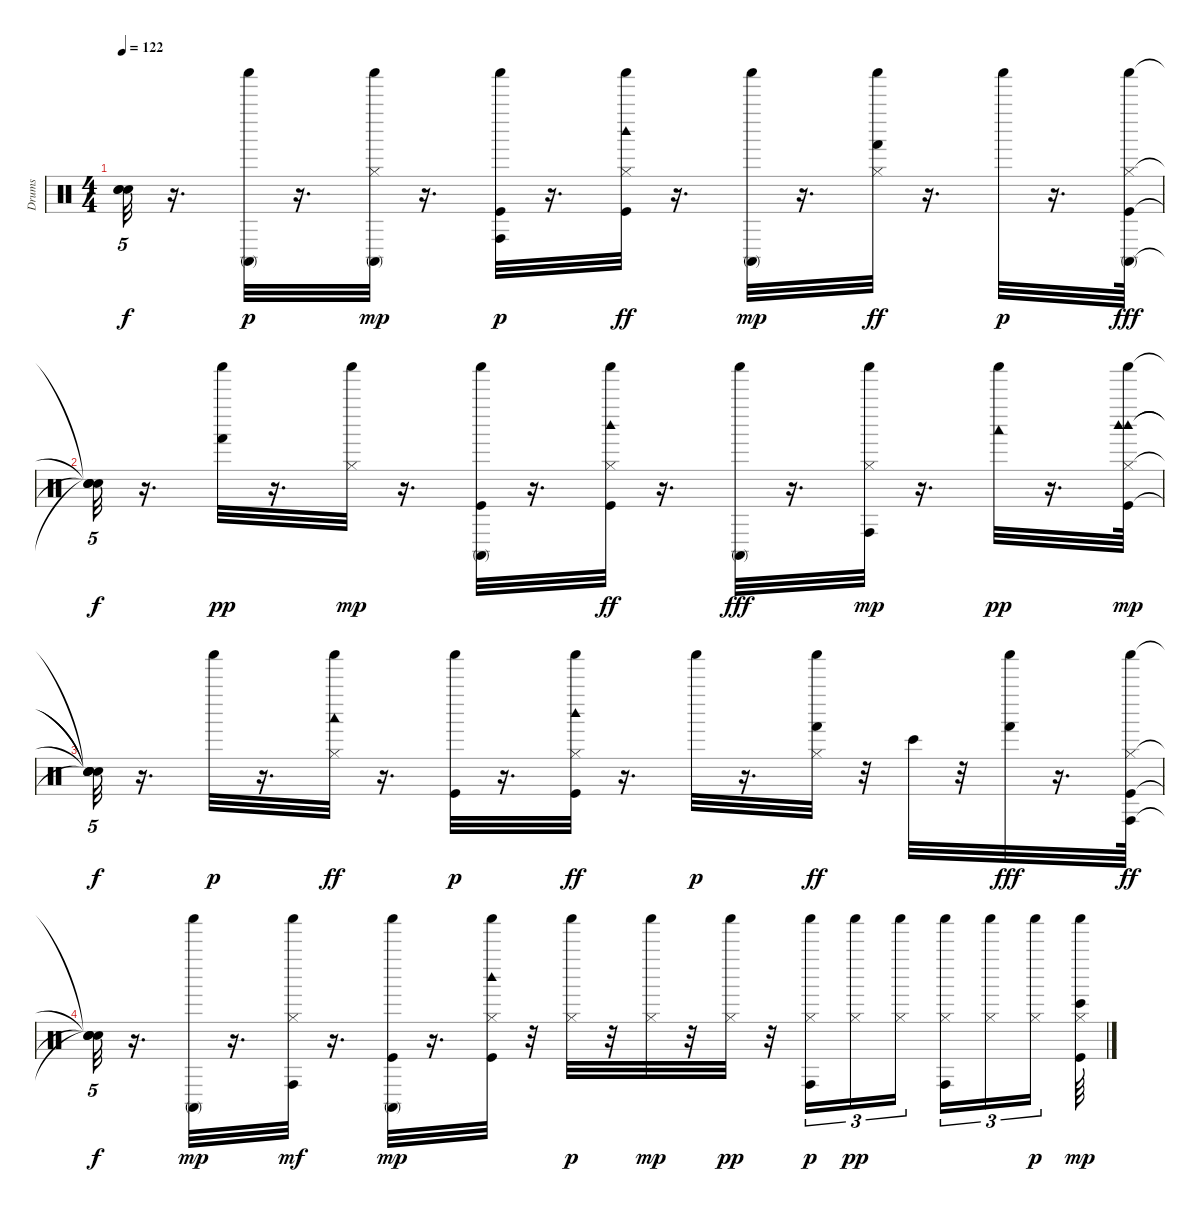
\track ("Drums" "Drums") {instrument percussion}
\staff {score}
\articulation defaults
\ts (4 4)
\tempo 122
\clef neutral
\ks c
("Snare (hit)"{t} "Snare (hit)"{t} "Snare (hit)"{t}).32{tu (5 4) dy f} r.16{d} ("Conga high (mute)" "Shaker (hit)").32{dy p} r.16{d} ("Shaker (hit)" "Hi-Hat (closed)" "Conga high (mute)").32{dy mp} r.16{d} ("Shaker (hit)" "Kick (hit)" "Conga high (hit)").32{dy p} r.16{d} ("Shaker (hit)" "Kick (hit)" "Hi-Hat (closed)" "Woodblock high (hit)").32{dy ff} r.16{d} ("Shaker (hit)" "Conga high (mute)").32{dy mp} r.16{d} ("Hi-Hat (closed)" "Shaker (hit)" "Hand (hit)").32{dy ff} r.16{d} "Shaker (hit)".32{dy p} r.16{d} ("Shaker (hit)" "Kick (hit)" "Hi-Hat (closed)" "Conga high (mute)").64{dy fff} |
("Snare (hit)"{t} "Snare (hit)"{t} "Snare (hit)"{t} "Snare (hit)"{t}).32{tu (5 4) dy f} r.16{d} ("Shaker (hit)" "Hand (hit)").32{dy pp} r.16{d} ("Shaker (hit)" "Hi-Hat (closed)").32{dy mp} r.16{d} ("Shaker (hit)" "Kick (hit)" "Conga high (mute)").32 r.16{d} ("Shaker (hit)" "Kick (hit)" "Hi-Hat (closed)" "Woodblock high (hit)").32{dy ff} r.16{d} ("Shaker (hit)" "Conga high (mute)").32{dy fff} r.16{d} ("Hi-Hat (closed)" "Shaker (hit)" "Conga high (hit)").32{dy mp} r.16{d} ("Shaker (hit)" "Woodblock low (hit)").32{dy pp} r.16{d} ("Kick (hit)" "Hi-Hat (closed)" "Woodblock high (hit)" "Woodblock high (hit)" "Shaker (hit)").64{dy mp} |
("Snare (hit)"{t} "Snare (hit)"{t} "Snare (hit)"{t} "Snare (hit)"{t} "Snare (hit)"{t}).32{tu (5 4) dy f} r.16{d} "Shaker (hit)".32{dy p} r.16{d} ("Shaker (hit)" "Hi-Hat (closed)" "Woodblock low (hit)").32{dy ff} r.16{d} ("Shaker (hit)" "Kick (hit)").32{dy p} r.16{d} ("Shaker (hit)" "Kick (hit)" "Hi-Hat (closed)" "Woodblock high (hit)").32{dy ff} r.16{d} "Shaker (hit)".32{dy p} r.16{d} ("Shaker (hit)" "Hi-Hat (closed)" "Hand (hit)").32{dy ff} r.32 "Bongo High (hit)".32 r.32 ("Shaker (hit)" "Hand (hit)").32{dy fff} r.16{d} ("Shaker (hit)" "Kick (hit)" "Hi-Hat (closed)" "Conga high (hit)").64{dy ff} |
("Snare (hit)"{t} "Snare (hit)"{t} "Snare (hit)"{t} "Snare (hit)"{t}).32{tu (5 4) dy f} r.16{d} ("Shaker (hit)" "Conga high (mute)").32{dy mp} r.16{d} ("Shaker (hit)" "Hi-Hat (closed)" "Conga high (hit)").32{dy mf} r.16{d} ("Shaker (hit)" "Kick (hit)" "Conga high (mute)").32{dy mp} r.16{d} ("Kick (hit)" "Hi-Hat (closed)" "Woodblock high (hit)" "Shaker (hit)").32 r.32 ("Hi-Hat (closed)" "Shaker (hit)").32{dy p} r.32 ("Shaker (hit)" "Hi-Hat (closed)").32{dy mp} r.32 ("Hi-Hat (closed)" "Shaker (hit)").32{dy pp} r.32 ("Hi-Hat (closed)" "Conga high (hit)" "Shaker (hit)").16{tu (3 2) dy p} ("Hi-Hat (closed)" "Shaker (hit)").16{tu (3 2) dy pp} ("Hi-Hat (closed)" "Shaker (hit)").16{tu (3 2) beam splitsecondary} ("Hi-Hat (closed)" "Conga high (hit)" "Shaker (hit)").16{tu (3 2)} ("Hi-Hat (closed)" "Shaker (hit)").16{tu (3 2)} ("Hi-Hat (closed)" "Shaker (hit)").16{tu (3 2) dy p beam splitsecondary} ("Kick (hit)" "Hi-Hat (closed)" "Bongo High (hit)" "Shaker (hit)").64{dy mp}
